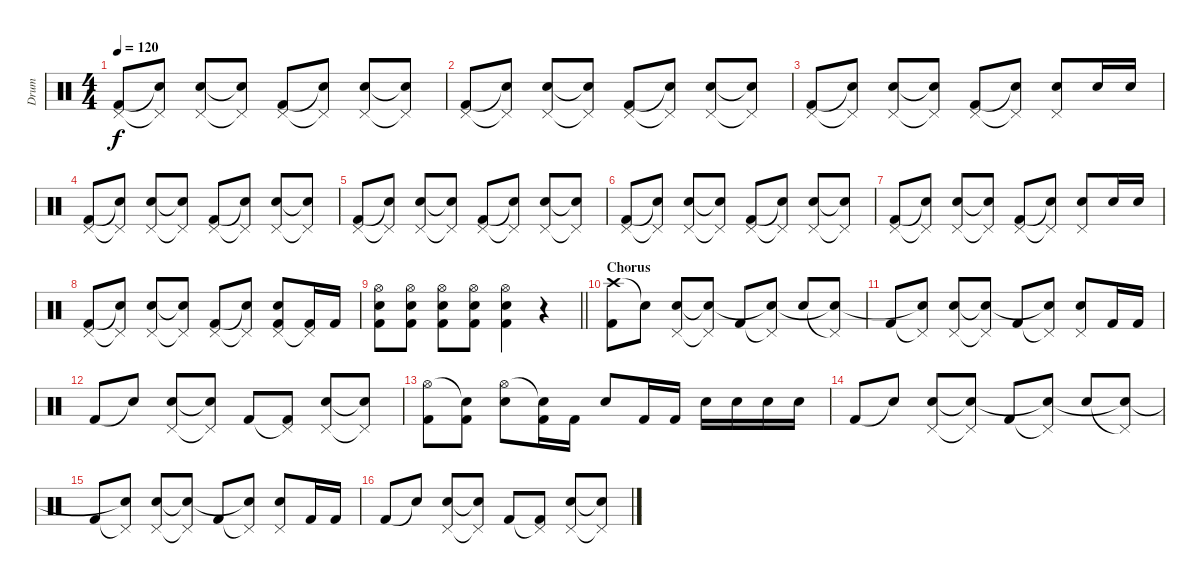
\track ("Drum" "Drum") {instrument percussion}
\staff {score}
\articulation defaults
\ts (4 4)
\tempo 120
\clef neutral
\ks c
("Pedal Hi-Hat (hit)" "Kick (hit) 2").8{dy f volume 11} ("Pedal Hi-Hat (hit)"{t} "Snare (hit)"{t}).8 ("Pedal Hi-Hat (hit)" "Electric Snare (hit)").8 ("Pedal Hi-Hat (hit)"{t} "Snare (hit)"{t}).8 ("Pedal Hi-Hat (hit)" "Kick (hit) 2").8 ("Pedal Hi-Hat (hit)"{t} "Snare (hit)"{t}).8 ("Pedal Hi-Hat (hit)" "Electric Snare (hit)").8 ("Pedal Hi-Hat (hit)"{t} "Snare (hit)"{t}).8 |
("Pedal Hi-Hat (hit)" "Kick (hit) 2").8{volume 11} ("Pedal Hi-Hat (hit)"{t} "Snare (hit)"{t}).8 ("Pedal Hi-Hat (hit)" "Electric Snare (hit)").8 ("Pedal Hi-Hat (hit)"{t} "Snare (hit)"{t}).8 ("Pedal Hi-Hat (hit)" "Kick (hit) 2").8 ("Pedal Hi-Hat (hit)"{t} "Snare (hit)"{t}).8 ("Pedal Hi-Hat (hit)" "Electric Snare (hit)").8 ("Pedal Hi-Hat (hit)"{t} "Snare (hit)"{t}).8 |
("Pedal Hi-Hat (hit)" "Kick (hit) 2").8{volume 11} ("Pedal Hi-Hat (hit)"{t} "Snare (hit)"{t}).8 ("Pedal Hi-Hat (hit)" "Electric Snare (hit)").8 ("Pedal Hi-Hat (hit)"{t} "Snare (hit)"{t}).8 ("Pedal Hi-Hat (hit)" "Kick (hit) 2").8 ("Pedal Hi-Hat (hit)"{t} "Snare (hit)"{t}).8 ("Pedal Hi-Hat (hit)" "Electric Snare (hit)").8 "Electric Snare (hit)".16 "Electric Snare (hit)".16 |
("Pedal Hi-Hat (hit)" "Kick (hit) 2").8{volume 11} ("Pedal Hi-Hat (hit)"{t} "Snare (hit)"{t}).8 ("Pedal Hi-Hat (hit)" "Electric Snare (hit)").8 ("Pedal Hi-Hat (hit)"{t} "Snare (hit)"{t}).8 ("Pedal Hi-Hat (hit)" "Kick (hit) 2").8 ("Pedal Hi-Hat (hit)"{t} "Snare (hit)"{t}).8 ("Pedal Hi-Hat (hit)" "Electric Snare (hit)").8 ("Pedal Hi-Hat (hit)"{t} "Snare (hit)"{t}).8 |
("Pedal Hi-Hat (hit)" "Kick (hit) 2").8{volume 11} ("Pedal Hi-Hat (hit)"{t} "Snare (hit)"{t}).8 ("Pedal Hi-Hat (hit)" "Electric Snare (hit)").8 ("Pedal Hi-Hat (hit)"{t} "Snare (hit)"{t}).8 ("Pedal Hi-Hat (hit)" "Kick (hit) 2").8 ("Pedal Hi-Hat (hit)"{t} "Snare (hit)"{t}).8 ("Pedal Hi-Hat (hit)" "Electric Snare (hit)").8 ("Pedal Hi-Hat (hit)"{t} "Snare (hit)"{t}).8 |
("Pedal Hi-Hat (hit)" "Kick (hit) 2").8{volume 11} ("Pedal Hi-Hat (hit)"{t} "Snare (hit)"{t}).8 ("Pedal Hi-Hat (hit)" "Electric Snare (hit)").8 ("Pedal Hi-Hat (hit)"{t} "Snare (hit)"{t}).8 ("Pedal Hi-Hat (hit)" "Kick (hit) 2").8 ("Pedal Hi-Hat (hit)"{t} "Snare (hit)"{t}).8 ("Pedal Hi-Hat (hit)" "Electric Snare (hit)").8 ("Pedal Hi-Hat (hit)"{t} "Snare (hit)"{t}).8 |
("Pedal Hi-Hat (hit)" "Kick (hit) 2").8{volume 11} ("Pedal Hi-Hat (hit)"{t} "Snare (hit)"{t}).8 ("Pedal Hi-Hat (hit)" "Electric Snare (hit)").8 ("Pedal Hi-Hat (hit)"{t} "Snare (hit)"{t}).8 ("Pedal Hi-Hat (hit)" "Kick (hit) 2").8 ("Pedal Hi-Hat (hit)"{t} "Snare (hit)"{t}).8 ("Pedal Hi-Hat (hit)" "Electric Snare (hit)").8 "Electric Snare (hit)".16 "Electric Snare (hit)".16 |
("Pedal Hi-Hat (hit)" "Kick (hit) 2").8{volume 11} ("Pedal Hi-Hat (hit)"{t} "Snare (hit)"{t}).8 ("Pedal Hi-Hat (hit)" "Electric Snare (hit)").8 ("Pedal Hi-Hat (hit)"{t} "Snare (hit)"{t}).8 ("Pedal Hi-Hat (hit)" "Kick (hit) 2").8 ("Pedal Hi-Hat (hit)"{t} "Snare (hit)"{t}).8 ("Pedal Hi-Hat (hit)" "Electric Snare (hit)" "Kick (hit) 2").8 ("Pedal Hi-Hat (hit)"{t} "Kick (hit) 2").16 "Kick (hit) 2".16 |
\barLineRight lightlight
("Hi-Hat (open)" "Electric Snare (hit)" "Kick (hit) 2").8 ("Hi-Hat (open)" "Electric Snare (hit)" "Kick (hit) 2").8 ("Hi-Hat (open)" "Electric Snare (hit)" "Kick (hit) 2").8 ("Hi-Hat (open)" "Electric Snare (hit)" "Kick (hit) 2").8 ("Hi-Hat (open)" "Electric Snare (hit)" "Kick (hit) 2").4 r.4 |
\section ("" "Chorus")
("Crash high (hit)" "Kick (hit) 2").8{volume 11} "Snare (hit)"{t}.8 ("Pedal Hi-Hat (hit)" "Electric Snare (hit)").8 ("Pedal Hi-Hat (hit)"{t} "Snare (hit)"{t}).8 "Kick (hit) 2".8 ("Pedal Hi-Hat (hit)"{t} "Snare (hit)"{t}).8 "Electric Snare (hit)".8 ("Pedal Hi-Hat (hit)"{t} "Snare (hit)"{t}).8 |
"Kick (hit) 2".8{volume 11} ("Pedal Hi-Hat (hit)"{t} "Snare (hit)"{t}).8 ("Pedal Hi-Hat (hit)" "Electric Snare (hit)").8 ("Pedal Hi-Hat (hit)"{t} "Snare (hit)"{t}).8 "Kick (hit) 2".8 ("Pedal Hi-Hat (hit)"{t} "Snare (hit)"{t}).8 ("Pedal Hi-Hat (hit)" "Electric Snare (hit)").8 "Kick (hit) 2".16 "Kick (hit) 2".16 |
"Kick (hit) 2".8{volume 11} "Snare (hit)"{t}.8 ("Pedal Hi-Hat (hit)" "Electric Snare (hit)").8 ("Pedal Hi-Hat (hit)"{t} "Snare (hit)"{t}).8 "Kick (hit) 2".8 ("Pedal Hi-Hat (hit)"{t} "Kick (hit) 2").8 ("Pedal Hi-Hat (hit)" "Electric Snare (hit)").8 ("Pedal Hi-Hat (hit)"{t} "Snare (hit)"{t}).8 |
("Hi-Hat (open)" "Kick (hit) 2").8 ("Snare (hit)"{t} "Kick (hit) 2").8 ("Hi-Hat (open)" "Electric Snare (hit)").8 ("Snare (hit)"{t} "Kick (hit) 2").16 "Kick (hit) 2".16 "Electric Snare (hit)".8 "Kick (hit) 2".16 "Kick (hit) 2".16 "Electric Snare (hit)".16 "Electric Snare (hit)".16 "Electric Snare (hit)".16 "Electric Snare (hit)".16 |
"Kick (hit) 2".8{volume 11} "Snare (hit)"{t}.8 ("Pedal Hi-Hat (hit)" "Electric Snare (hit)").8 ("Pedal Hi-Hat (hit)"{t} "Snare (hit)"{t}).8 "Kick (hit) 2".8 ("Pedal Hi-Hat (hit)"{t} "Snare (hit)"{t}).8 "Electric Snare (hit)".8 ("Pedal Hi-Hat (hit)"{t} "Snare (hit)"{t}).8 |
"Kick (hit) 2".8{volume 11} ("Pedal Hi-Hat (hit)"{t} "Snare (hit)"{t}).8 ("Pedal Hi-Hat (hit)" "Electric Snare (hit)").8 ("Pedal Hi-Hat (hit)"{t} "Snare (hit)"{t}).8 "Kick (hit) 2".8 ("Pedal Hi-Hat (hit)"{t} "Snare (hit)"{t}).8 ("Pedal Hi-Hat (hit)" "Electric Snare (hit)").8 "Kick (hit) 2".16 "Kick (hit) 2".16 |
"Kick (hit) 2".8{volume 11} "Snare (hit)"{t}.8 ("Pedal Hi-Hat (hit)" "Electric Snare (hit)").8 ("Pedal Hi-Hat (hit)"{t} "Snare (hit)"{t}).8 "Kick (hit) 2".8 ("Pedal Hi-Hat (hit)"{t} "Kick (hit) 2").8 ("Pedal Hi-Hat (hit)" "Electric Snare (hit)").8 ("Pedal Hi-Hat (hit)"{t} "Snare (hit)"{t}).8
